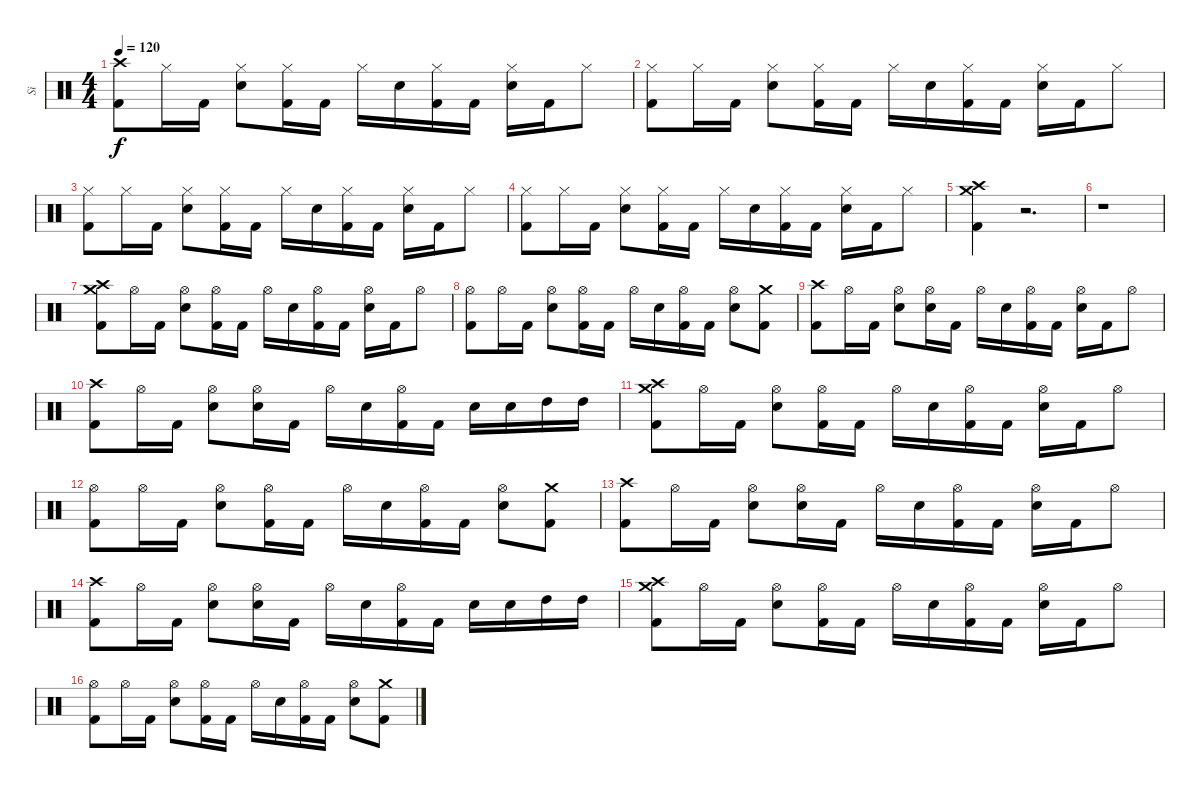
\track ("Si" "Si") {instrument percussion}
\staff {score}
\articulation defaults
\ts (4 4)
\tempo 120
\clef neutral
\ks c
("Crash high (hit)" "Kick (hit) 2").8{dy f} "Hi-Hat (closed)".16 "Kick (hit) 2".16 ("Hi-Hat (closed)" "Electric Snare (hit)").8 ("Hi-Hat (closed)" "Kick (hit) 2").16 "Kick (hit) 2".16 "Hi-Hat (closed)".16 "Electric Snare (hit)".16 ("Hi-Hat (closed)" "Kick (hit) 2").16 "Kick (hit) 2".16 ("Hi-Hat (closed)" "Electric Snare (hit)").16 "Kick (hit) 2".16 "Hi-Hat (closed)".8 |
("Hi-Hat (closed)" "Kick (hit) 2").8 "Hi-Hat (closed)".16 "Kick (hit) 2".16 ("Hi-Hat (closed)" "Electric Snare (hit)").8 ("Hi-Hat (closed)" "Kick (hit) 2").16 "Kick (hit) 2".16 "Hi-Hat (closed)".16 "Electric Snare (hit)".16 ("Hi-Hat (closed)" "Kick (hit) 2").16 "Kick (hit) 2".16 ("Hi-Hat (closed)" "Electric Snare (hit)").16 "Kick (hit) 2".16 "Hi-Hat (closed)".8 |
("Hi-Hat (closed)" "Kick (hit) 2").8 "Hi-Hat (closed)".16 "Kick (hit) 2".16 ("Hi-Hat (closed)" "Electric Snare (hit)").8 ("Hi-Hat (closed)" "Kick (hit) 2").16 "Kick (hit) 2".16 "Hi-Hat (closed)".16 "Electric Snare (hit)".16 ("Hi-Hat (closed)" "Kick (hit) 2").16 "Kick (hit) 2".16 ("Hi-Hat (closed)" "Electric Snare (hit)").16 "Kick (hit) 2".16 "Hi-Hat (closed)".8 |
("Hi-Hat (closed)" "Kick (hit) 2").8 "Hi-Hat (closed)".16 "Kick (hit) 2".16 ("Hi-Hat (closed)" "Electric Snare (hit)").8 ("Hi-Hat (closed)" "Kick (hit) 2").16 "Kick (hit) 2".16 "Hi-Hat (closed)".16 "Electric Snare (hit)".16 ("Hi-Hat (closed)" "Kick (hit) 2").16 "Kick (hit) 2".16 ("Hi-Hat (closed)" "Electric Snare (hit)").16 "Kick (hit) 2".16 "Hi-Hat (closed)".8 |
("Crash high (hit)" "Crash medium (hit)" "Kick (hit) 2").4 r.2{d} |
r.1 |
("Crash high (hit)" "Crash medium (hit)" "Kick (hit) 2").8 "Hi-Hat (open)".16 "Kick (hit) 2".16 ("Hi-Hat (open)" "Electric Snare (hit)").8 ("Hi-Hat (open)" "Kick (hit) 2").16 "Kick (hit) 2".16 "Hi-Hat (open)".16 "Electric Snare (hit)".16 ("Hi-Hat (open)" "Kick (hit) 2").16 "Kick (hit) 2".16 ("Hi-Hat (open)" "Electric Snare (hit)").16 "Kick (hit) 2".16 "Hi-Hat (open)".8 |
("Hi-Hat (open)" "Kick (hit) 2").8 "Hi-Hat (open)".16 "Kick (hit) 2".16 ("Hi-Hat (open)" "Electric Snare (hit)").8 ("Hi-Hat (open)" "Kick (hit) 2").16 "Kick (hit) 2".16 "Hi-Hat (open)".16 "Electric Snare (hit)".16 ("Hi-Hat (open)" "Kick (hit) 2").16 "Kick (hit) 2".16 ("Hi-Hat (open)" "Electric Snare (hit)").8 ("Crash medium (hit)" "Kick (hit) 2").8 |
("Crash high (hit)" "Kick (hit) 2").8 "Hi-Hat (open)".16 "Kick (hit) 2".16 ("Hi-Hat (open)" "Electric Snare (hit)").8 ("Hi-Hat (open)" "Electric Snare (hit)").16 "Kick (hit) 2".16 "Hi-Hat (open)".16 "Electric Snare (hit)".16 ("Hi-Hat (open)" "Kick (hit) 2").16 "Kick (hit) 2".16 ("Hi-Hat (open)" "Electric Snare (hit)").16 "Kick (hit) 2".16 "Hi-Hat (open)".8 |
("Crash high (hit)" "Kick (hit) 2").8 "Hi-Hat (open)".16 "Kick (hit) 2".16 ("Hi-Hat (open)" "Electric Snare (hit)").8 ("Hi-Hat (open)" "Electric Snare (hit)").16 "Kick (hit) 2".16 "Hi-Hat (open)".16 "Electric Snare (hit)".16 ("Hi-Hat (open)" "Kick (hit) 2").16 "Kick (hit) 2".16 "Electric Snare (hit)".16 "Electric Snare (hit)".16 "High Tom (hit)".16 "High Tom (hit)".16 |
("Crash high (hit)" "Crash medium (hit)" "Kick (hit) 2").8 "Hi-Hat (open)".16 "Kick (hit) 2".16 ("Hi-Hat (open)" "Electric Snare (hit)").8 ("Hi-Hat (open)" "Kick (hit) 2").16 "Kick (hit) 2".16 "Hi-Hat (open)".16 "Electric Snare (hit)".16 ("Hi-Hat (open)" "Kick (hit) 2").16 "Kick (hit) 2".16 ("Hi-Hat (open)" "Electric Snare (hit)").16 "Kick (hit) 2".16 "Hi-Hat (open)".8 |
("Hi-Hat (open)" "Kick (hit) 2").8 "Hi-Hat (open)".16 "Kick (hit) 2".16 ("Hi-Hat (open)" "Electric Snare (hit)").8 ("Hi-Hat (open)" "Kick (hit) 2").16 "Kick (hit) 2".16 "Hi-Hat (open)".16 "Electric Snare (hit)".16 ("Hi-Hat (open)" "Kick (hit) 2").16 "Kick (hit) 2".16 ("Hi-Hat (open)" "Electric Snare (hit)").8 ("Crash medium (hit)" "Kick (hit) 2").8 |
("Crash high (hit)" "Kick (hit) 2").8 "Hi-Hat (open)".16 "Kick (hit) 2".16 ("Hi-Hat (open)" "Electric Snare (hit)").8 ("Hi-Hat (open)" "Electric Snare (hit)").16 "Kick (hit) 2".16 "Hi-Hat (open)".16 "Electric Snare (hit)".16 ("Hi-Hat (open)" "Kick (hit) 2").16 "Kick (hit) 2".16 ("Hi-Hat (open)" "Electric Snare (hit)").16 "Kick (hit) 2".16 "Hi-Hat (open)".8 |
("Crash high (hit)" "Kick (hit) 2").8 "Hi-Hat (open)".16 "Kick (hit) 2".16 ("Hi-Hat (open)" "Electric Snare (hit)").8 ("Hi-Hat (open)" "Electric Snare (hit)").16 "Kick (hit) 2".16 "Hi-Hat (open)".16 "Electric Snare (hit)".16 ("Hi-Hat (open)" "Kick (hit) 2").16 "Kick (hit) 2".16 "Electric Snare (hit)".16 "Electric Snare (hit)".16 "High Tom (hit)".16 "High Tom (hit)".16 |
("Crash high (hit)" "Crash medium (hit)" "Kick (hit) 2").8 "Hi-Hat (open)".16 "Kick (hit) 2".16 ("Hi-Hat (open)" "Electric Snare (hit)").8 ("Hi-Hat (open)" "Kick (hit) 2").16 "Kick (hit) 2".16 "Hi-Hat (open)".16 "Electric Snare (hit)".16 ("Hi-Hat (open)" "Kick (hit) 2").16 "Kick (hit) 2".16 ("Hi-Hat (open)" "Electric Snare (hit)").16 "Kick (hit) 2".16 "Hi-Hat (open)".8 |
("Hi-Hat (open)" "Kick (hit) 2").8 "Hi-Hat (open)".16 "Kick (hit) 2".16 ("Hi-Hat (open)" "Electric Snare (hit)").8 ("Hi-Hat (open)" "Kick (hit) 2").16 "Kick (hit) 2".16 "Hi-Hat (open)".16 "Electric Snare (hit)".16 ("Hi-Hat (open)" "Kick (hit) 2").16 "Kick (hit) 2".16 ("Hi-Hat (open)" "Electric Snare (hit)").8 ("Crash medium (hit)" "Kick (hit) 2").8
